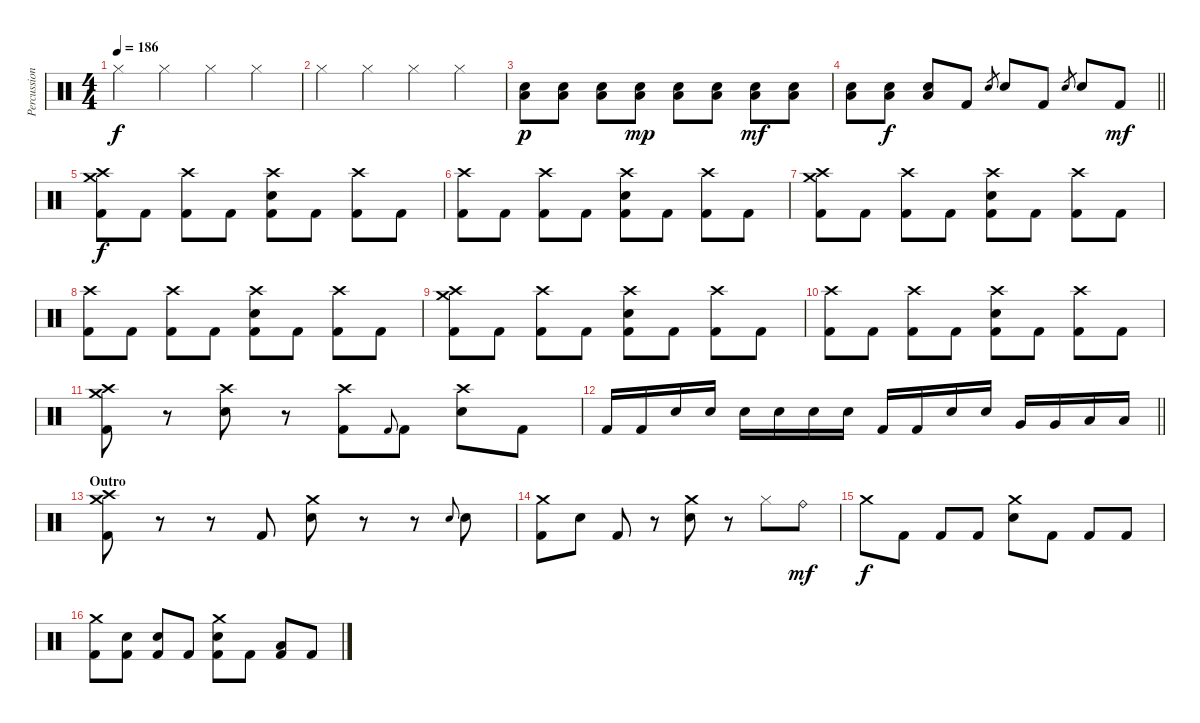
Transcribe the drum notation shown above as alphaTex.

\track ("Percussion" "Percussion") {instrument percussion}
\staff {score}
\articulation defaults
\ts (4 4)
\tempo 186
\clef neutral
\ks c "Hi-Hat (closed)".4{dy f} "Hi-Hat (closed)".4 "Hi-Hat (closed)".4 "Hi-Hat (closed)".4
|
"Hi-Hat (closed)".4 "Hi-Hat (closed)".4 "Hi-Hat (closed)".4 "Hi-Hat (closed)".4 |
("Electric Snare (hit)" "Low Floor Tom (hit)").8{dy p} ("Electric Snare (hit)" "Low Floor Tom (hit)").8 ("Electric Snare (hit)" "Low Floor Tom (hit)").8 ("Electric Snare (hit)" "Low Floor Tom (hit)").8{dy mp} ("Electric Snare (hit)" "Low Floor Tom (hit)").8 ("Electric Snare (hit)" "Low Floor Tom (hit)").8 ("Electric Snare (hit)" "Low Floor Tom (hit)").8{dy mf} ("Electric Snare (hit)" "Low Floor Tom (hit)").8 |
\barLineRight lightlight
("Electric Snare (hit)" "Low Floor Tom (hit)").8 ("Electric Snare (hit)" "Low Floor Tom (hit)").8{dy f} ("Electric Snare (hit)" "Low Floor Tom (hit)").8 "Kick (hit) 2".8 "Electric Snare (hit)".8{gr} "Electric Snare (hit)".8 "Kick (hit) 2".8 "Electric Snare (hit)".8{gr} "Electric Snare (hit)".8 "Kick (hit) 2".8{dy mf} |
("Crash high (hit)" "Crash medium (hit)" "Kick (hit) 2").8{dy f} "Kick (hit) 2".8 ("Crash high (hit)" "Kick (hit) 2").8 "Kick (hit) 2".8 ("Crash high (hit)" "Electric Snare (hit)" "Kick (hit) 2").8 "Kick (hit) 2".8 ("Crash high (hit)" "Kick (hit) 2").8 "Kick (hit) 2".8 |
("Crash high (hit)" "Kick (hit) 2").8 "Kick (hit) 2".8 ("Crash high (hit)" "Kick (hit) 2").8 "Kick (hit) 2".8 ("Crash high (hit)" "Electric Snare (hit)" "Kick (hit) 2").8 "Kick (hit) 2".8 ("Crash high (hit)" "Kick (hit) 2").8 "Kick (hit) 2".8 |
("Crash high (hit)" "Crash medium (hit)" "Kick (hit) 2").8 "Kick (hit) 2".8 ("Crash high (hit)" "Kick (hit) 2").8 "Kick (hit) 2".8 ("Crash high (hit)" "Electric Snare (hit)" "Kick (hit) 2").8 "Kick (hit) 2".8 ("Crash high (hit)" "Kick (hit) 2").8 "Kick (hit) 2".8 |
("Crash high (hit)" "Kick (hit) 2").8 "Kick (hit) 2".8 ("Crash high (hit)" "Kick (hit) 2").8 "Kick (hit) 2".8 ("Crash high (hit)" "Electric Snare (hit)" "Kick (hit) 2").8 "Kick (hit) 2".8 ("Crash high (hit)" "Kick (hit) 2").8 "Kick (hit) 2".8 |
("Crash high (hit)" "Crash medium (hit)" "Kick (hit) 2").8 "Kick (hit) 2".8 ("Crash high (hit)" "Kick (hit) 2").8 "Kick (hit) 2".8 ("Crash high (hit)" "Electric Snare (hit)" "Kick (hit) 2").8 "Kick (hit) 2".8 ("Crash high (hit)" "Kick (hit) 2").8 "Kick (hit) 2".8 |
("Crash high (hit)" "Kick (hit) 2").8 "Kick (hit) 2".8 ("Crash high (hit)" "Kick (hit) 2").8 "Kick (hit) 2".8 ("Crash high (hit)" "Electric Snare (hit)" "Kick (hit) 2").8 "Kick (hit) 2".8 ("Crash high (hit)" "Kick (hit) 2").8 "Kick (hit) 2".8 |
("Crash high (hit)" "Crash medium (hit)" "Kick (hit) 2").8 r.8 ("Crash high (hit)" "Electric Snare (hit)").8 r.8 ("Crash high (hit)" "Kick (hit) 2").8 "Kick (hit) 2".8{gr onbeat} "Kick (hit) 2".8 ("Crash high (hit)" "Electric Snare (hit)").8 "Kick (hit) 2".8 |
\barLineRight lightlight "Kick (hit) 2".16 "Kick (hit) 2".16 "Electric Snare (hit)".16 "Electric Snare (hit)".16 "Electric Snare (hit)".16 "Electric Snare (hit)".16 "Electric Snare (hit)".16 "Electric Snare (hit)".16 "Kick (hit) 2".16 "Kick (hit) 2".16 "Electric Snare (hit)".16 "Electric Snare (hit)".16 "Very Low Tom (hit)".16 "Very Low Tom (hit)".16 "Low Floor Tom (hit)".16 "Low Floor Tom (hit)".16
|
\section ("" "Outro")
("Crash high (hit)" "Crash medium (hit)" "Kick (hit) 2").8 r.8 r.8 "Kick (hit) 2".8 ("Crash medium (hit)" "Electric Snare (hit)").8 r.8 r.8 "Electric Snare (hit)".8{gr onbeat} "Electric Snare (hit)".8 |
("Crash medium (hit)" "Kick (hit) 2").8 "Electric Snare (hit)".8 "Kick (hit) 2".8 r.8 ("Crash medium (hit)" "Electric Snare (hit)").8 r.8 "Hi-Hat (closed)".8 "Ride (bell)".8{dy mf} |
"Crash medium (hit)".8{dy f} "Kick (hit) 2".8 "Kick (hit) 2".8 "Kick (hit) 2".8 ("Crash medium (hit)" "Electric Snare (hit)").8 "Kick (hit) 2".8 "Kick (hit) 2".8 "Kick (hit) 2".8 |
("Crash medium (hit)" "Kick (hit) 2").8 ("Electric Snare (hit)" "Kick (hit) 2").8 ("Electric Snare (hit)" "Kick (hit) 2").8 "Kick (hit) 2".8 ("Crash medium (hit)" "Electric Snare (hit)" "Kick (hit) 2").8 "Kick (hit) 2".8 ("Low Floor Tom (hit)" "Kick (hit) 2").8 "Kick (hit) 2".8
